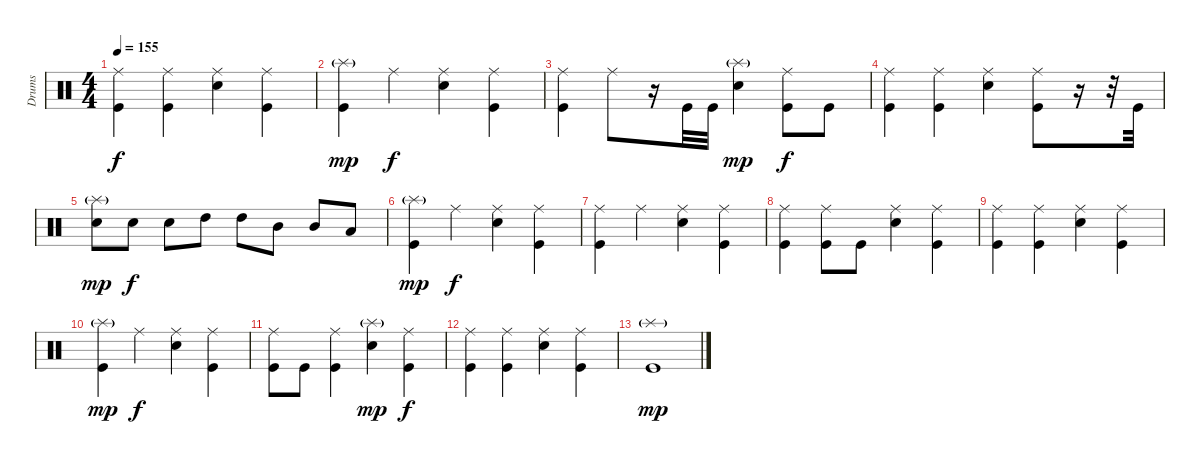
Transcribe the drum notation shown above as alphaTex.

\track ("Drums" "Drums") {instrument percussion}
\staff {score}
\articulation defaults
\ts (4 4)
\tempo 155
\clef neutral
\ks c
("Ride (middle)" "Kick (hit)").4{dy f} ("Ride (middle)" "Kick (hit)").4 ("Ride (middle)" "Snare (hit) 2").4 ("Ride (middle)" "Kick (hit)").4 |
("Splash (hit)"{g} "Kick (hit)").4{dy mp} "Ride (middle)".4{dy f} ("Ride (middle)" "Snare (hit) 2").4 ("Ride (middle)" "Kick (hit)").4 |
("Ride (middle)" "Kick (hit)").4 "Ride (middle)".8 r.16 "Kick (hit)".32 "Kick (hit)".32 ("Splash (hit)"{g} "Snare (hit) 2").4{dy mp} ("Ride (middle)" "Kick (hit)").8{dy f} "Kick (hit)".8 |
("Ride (middle)" "Kick (hit)").4 ("Ride (middle)" "Kick (hit)").4 ("Ride (middle)" "Snare (hit) 2").4 ("Ride (middle)" "Kick (hit)").8 r.16 r.32 "Kick (hit)".32 |
("Splash (hit)"{g} "Snare (hit) 2").8{dy mp} "Snare (hit) 2".8{dy f} "Snare (hit) 2".8 "High Tom (hit)".8 "High Tom (hit)".8 "Mid Tom (hit)".8 "Mid Tom (hit)".8 "Low Tom (hit)".8 |
("Splash (hit)"{g} "Kick (hit)").4{dy mp} "Ride (middle)".4{dy f} ("Ride (middle)" "Snare (hit) 2").4 ("Ride (middle)" "Kick (hit)").4 |
("Ride (middle)" "Kick (hit)").4 "Ride (middle)".4 ("Ride (middle)" "Snare (hit) 2").4 ("Ride (middle)" "Kick (hit)").4 |
("Ride (middle)" "Kick (hit)").4 ("Ride (middle)" "Kick (hit)").8 "Kick (hit)".8 ("Ride (middle)" "Snare (hit) 2").4 ("Ride (middle)" "Kick (hit)").4 |
("Ride (middle)" "Kick (hit)").4 ("Ride (middle)" "Kick (hit)").4 ("Ride (middle)" "Snare (hit) 2").4 ("Ride (middle)" "Kick (hit)").4 |
("Splash (hit)"{g} "Kick (hit)").4{dy mp} "Ride (middle)".4{dy f} ("Ride (middle)" "Snare (hit) 2").4 ("Ride (middle)" "Kick (hit)").4 |
("Ride (middle)" "Kick (hit)").8 "Kick (hit)".8 ("Ride (middle)" "Kick (hit)").4 ("Splash (hit)"{g} "Snare (hit) 2").4{dy mp} ("Ride (middle)" "Kick (hit)").4{dy f} |
("Ride (middle)" "Kick (hit)").4 ("Ride (middle)" "Kick (hit)").4 ("Ride (middle)" "Snare (hit) 2").4 ("Ride (middle)" "Kick (hit)").4 |
("Splash (hit)"{g} "Kick (hit)").1{dy mp}
